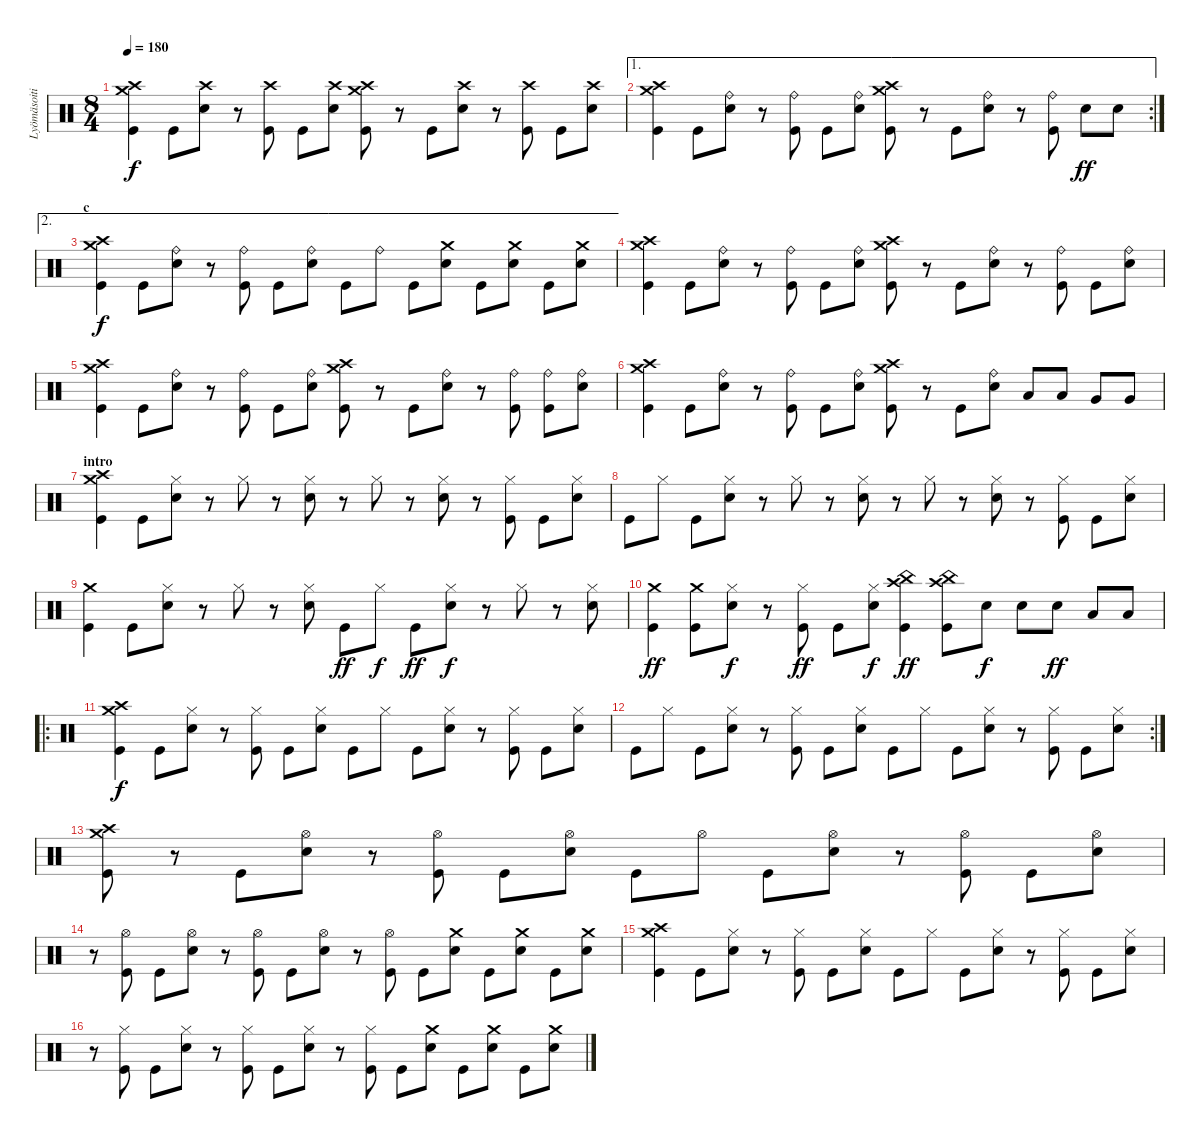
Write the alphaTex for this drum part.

\track ("Lyömäsoitin" "Lyömäsoiti") {instrument percussion}
\staff {score}
\articulation defaults
\ts (8 4)
\tempo 180
\clef neutral
\ks c
("Crash medium (hit)" "Crash high (hit)" "Kick (hit)").4{dy f} "Kick (hit)".8 ("Crash high (hit)" "Snare (hit) 2").8 r.8 ("Crash high (hit)" "Kick (hit)").8 "Kick (hit)".8 ("Crash high (hit)" "Snare (hit) 2").8 ("Crash medium (hit)" "Crash high (hit)" "Kick (hit)").8 r.8 "Kick (hit)".8 ("Crash high (hit)" "Snare (hit) 2").8 r.8 ("Crash high (hit)" "Kick (hit)").8 "Kick (hit)".8 ("Crash high (hit)" "Snare (hit) 2").8 |
\ae 1
\rc 2
("Crash medium (hit)" "Crash high (hit)" "Kick (hit)").4 "Kick (hit)".8 ("Ride (bell)" "Snare (hit) 2").8 r.8 ("Ride (bell)" "Kick (hit)").8 "Kick (hit)".8 ("Ride (bell)" "Snare (hit) 2").8 ("Crash medium (hit)" "Crash high (hit)" "Kick (hit)").8 r.8 "Kick (hit)".8 ("Ride (bell)" "Snare (hit) 2").8 r.8 ("Ride (bell)" "Kick (hit)").8 "Snare (hit) 2".8{dy ff} "Snare (hit) 2".8 |
\ae 2
\section ("" "c")
("Crash medium (hit)" "Crash high (hit)" "Kick (hit)").4{dy f} "Kick (hit)".8 ("Ride (bell)" "Snare (hit) 2").8 r.8 ("Ride (bell)" "Kick (hit)").8 "Kick (hit)".8 ("Ride (bell)" "Snare (hit) 2").8 "Kick (hit)".8 "Ride (bell)".8 "Kick (hit)".8 ("Crash medium (hit)" "Snare (hit) 2").8 "Kick (hit)".8 ("Crash medium (hit)" "Snare (hit) 2").8 "Kick (hit)".8 ("Crash medium (hit)" "Snare (hit) 2").8 |
("Crash medium (hit)" "Crash high (hit)" "Kick (hit)").4 "Kick (hit)".8 ("Ride (bell)" "Snare (hit) 2").8 r.8 ("Ride (bell)" "Kick (hit)").8 "Kick (hit)".8 ("Ride (bell)" "Snare (hit) 2").8 ("Crash medium (hit)" "Crash high (hit)" "Kick (hit)").8 r.8 "Kick (hit)".8 ("Ride (bell)" "Snare (hit) 2").8 r.8 ("Ride (bell)" "Kick (hit)").8 "Kick (hit)".8 ("Ride (bell)" "Snare (hit) 2").8 |
("Crash medium (hit)" "Crash high (hit)" "Kick (hit)").4 "Kick (hit)".8 ("Ride (bell)" "Snare (hit) 2").8 r.8 ("Ride (bell)" "Kick (hit)").8 "Kick (hit)".8 ("Ride (bell)" "Snare (hit) 2").8 ("Crash medium (hit)" "Crash high (hit)" "Kick (hit)").8 r.8 "Kick (hit)".8 ("Ride (bell)" "Snare (hit) 2").8 r.8 ("Ride (bell)" "Kick (hit)").8 ("Ride (bell)" "Kick (hit)").8 ("Ride (bell)" "Snare (hit) 2").8 |
("Crash medium (hit)" "Crash high (hit)" "Kick (hit)").4 "Kick (hit)".8 ("Ride (bell)" "Snare (hit) 2").8 r.8 ("Ride (bell)" "Kick (hit)").8 "Kick (hit)".8 ("Ride (bell)" "Snare (hit) 2").8 ("Crash medium (hit)" "Crash high (hit)" "Kick (hit)").8 r.8 "Kick (hit)".8 ("Ride (bell)" "Snare (hit) 2").8 "Low Tom (hit)".8 "Low Tom (hit)".8 "Very Low Tom (hit)".8 "Very Low Tom (hit)".8 |
\section ("" "intro")
("Crash medium (hit)" "Crash high (hit)" "Kick (hit)").4 "Kick (hit)".8 ("Hi-Hat (closed)" "Snare (hit) 2").8 r.8 "Hi-Hat (closed)".8 r.8 ("Hi-Hat (closed)" "Snare (hit) 2").8 r.8 "Hi-Hat (closed)".8 r.8 ("Hi-Hat (closed)" "Snare (hit) 2").8 r.8 ("Hi-Hat (closed)" "Kick (hit)").8 "Kick (hit)".8 ("Hi-Hat (closed)" "Snare (hit) 2").8 |
"Kick (hit)".8 "Hi-Hat (closed)".8 "Kick (hit)".8 ("Hi-Hat (closed)" "Snare (hit) 2").8 r.8 "Hi-Hat (closed)".8 r.8 ("Hi-Hat (closed)" "Snare (hit) 2").8 r.8 "Hi-Hat (closed)".8 r.8 ("Hi-Hat (closed)" "Snare (hit) 2").8 r.8 ("Hi-Hat (closed)" "Kick (hit)").8 "Kick (hit)".8 ("Hi-Hat (closed)" "Snare (hit) 2").8 |
("Crash medium (hit)" "Kick (hit)").4 "Kick (hit)".8 ("Hi-Hat (closed)" "Snare (hit) 2").8 r.8 "Hi-Hat (closed)".8 r.8 ("Hi-Hat (closed)" "Snare (hit) 2").8 "Kick (hit)".8{dy ff} "Hi-Hat (closed)".8{dy f} "Kick (hit)".8{dy ff} ("Hi-Hat (closed)" "Snare (hit) 2").8{dy f} r.8 "Hi-Hat (closed)".8 r.8 ("Hi-Hat (closed)" "Snare (hit) 2").8 |
("Crash medium (hit)" "Kick (hit)").4{dy ff} ("Crash medium (hit)" "Kick (hit)").8 ("Hi-Hat (closed)" "Snare (hit) 2").8{dy f} r.8 ("Hi-Hat (closed)" "Kick (hit)").8{dy ff} "Kick (hit)".8 ("Hi-Hat (closed)" "Snare (hit) 2").8{dy f} ("Crash high (hit)" "China (hit)" "Kick (hit)").4{dy ff} ("Crash high (hit)" "China (hit)" "Kick (hit)").8 "Snare (hit) 2".8{dy f} "Snare (hit) 2".8 "Snare (hit) 2".8{dy ff} "Low Tom (hit)".8 "Low Tom (hit)".8 |
\ro
("Crash medium (hit)" "Crash high (hit)" "Kick (hit)").4{dy f} "Kick (hit)".8 ("Hi-Hat (closed)" "Snare (hit) 2").8 r.8 ("Hi-Hat (closed)" "Kick (hit)").8 "Kick (hit)".8 ("Hi-Hat (closed)" "Snare (hit) 2").8 "Kick (hit)".8 "Hi-Hat (closed)".8 "Kick (hit)".8 ("Hi-Hat (closed)" "Snare (hit) 2").8 r.8 ("Hi-Hat (closed)" "Kick (hit)").8 "Kick (hit)".8 ("Hi-Hat (closed)" "Snare (hit) 2").8 |
\rc 2 "Kick (hit)".8 "Hi-Hat (closed)".8 "Kick (hit)".8
("Hi-Hat (closed)" "Snare (hit) 2").8 r.8 ("Hi-Hat (closed)" "Kick (hit)").8 "Kick (hit)".8 ("Hi-Hat (closed)" "Snare (hit) 2").8 "Kick (hit)".8 "Hi-Hat (closed)".8 "Kick (hit)".8 ("Hi-Hat (closed)" "Snare (hit) 2").8 r.8 ("Hi-Hat (closed)" "Kick (hit)").8 "Kick (hit)".8 ("Hi-Hat (closed)" "Snare (hit) 2").8 |
("Crash medium (hit)" "Crash high (hit)" "Kick (hit)").8 r.8 "Kick (hit)".8 ("Hi-Hat (open)" "Snare (hit) 2").8 r.8 ("Hi-Hat (open)" "Kick (hit)").8 "Kick (hit)".8 ("Hi-Hat (open)" "Snare (hit) 2").8 "Kick (hit)".8 "Hi-Hat (open)".8 "Kick (hit)".8 ("Hi-Hat (open)" "Snare (hit) 2").8 r.8 ("Hi-Hat (open)" "Kick (hit)").8 "Kick (hit)".8 ("Hi-Hat (open)" "Snare (hit) 2").8 |
r.8 ("Hi-Hat (open)" "Kick (hit)").8 "Kick (hit)".8 ("Hi-Hat (open)" "Snare (hit) 2").8 r.8 ("Hi-Hat (open)" "Kick (hit)").8 "Kick (hit)".8 ("Hi-Hat (open)" "Snare (hit) 2").8 r.8 ("Hi-Hat (open)" "Kick (hit)").8 "Kick (hit)".8 ("Crash medium (hit)" "Snare (hit) 2").8 "Kick (hit)".8 ("Crash medium (hit)" "Snare (hit) 2").8 "Kick (hit)".8 ("Crash medium (hit)" "Snare (hit) 2").8 |
("Crash medium (hit)" "Crash high (hit)" "Kick (hit)").4 "Kick (hit)".8 ("Hi-Hat (closed)" "Snare (hit) 2").8 r.8 ("Hi-Hat (closed)" "Kick (hit)").8 "Kick (hit)".8 ("Hi-Hat (closed)" "Snare (hit) 2").8 "Kick (hit)".8 "Hi-Hat (closed)".8 "Kick (hit)".8 ("Hi-Hat (closed)" "Snare (hit) 2").8 r.8 ("Hi-Hat (closed)" "Kick (hit)").8 "Kick (hit)".8 ("Hi-Hat (closed)" "Snare (hit) 2").8 |
r.8 ("Hi-Hat (closed)" "Kick (hit)").8 "Kick (hit)".8 ("Hi-Hat (closed)" "Snare (hit) 2").8 r.8 ("Hi-Hat (closed)" "Kick (hit)").8 "Kick (hit)".8 ("Hi-Hat (closed)" "Snare (hit) 2").8 r.8 ("Hi-Hat (closed)" "Kick (hit)").8 "Kick (hit)".8 ("Crash medium (hit)" "Snare (hit) 2").8 "Kick (hit)".8 ("Crash medium (hit)" "Snare (hit) 2").8 "Kick (hit)".8 ("Crash medium (hit)" "Snare (hit) 2").8
